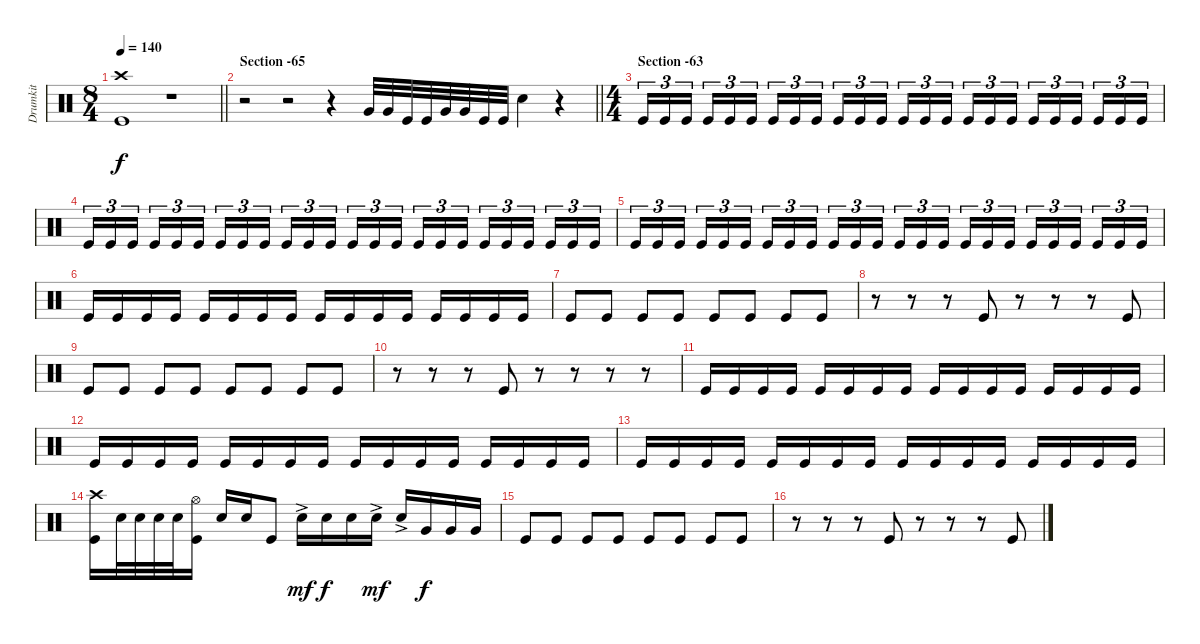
\track ("Drumkit" "Drumkit") {instrument percussion}
\staff {score}
\articulation defaults
\ts (8 4)
\tempo 140
\clef neutral
\barLineRight lightlight
\ks c
("Kick (hit)" "Crash high (hit)").1{dy f} r.1 |
\section ("" "Section -65")
\barLineRight lightlight
r.2 r.2 r.4 "Very Low Tom (hit)".32 "Very Low Tom (hit)".32 "Kick (hit)".32 "Kick (hit)".32 "Very Low Tom (hit)".32 "Very Low Tom (hit)".32 "Kick (hit)".32 "Kick (hit)".32 "Snare (hit) 2".4 r.4 |
\ts (4 4)
\section ("" "Section -63")
"Kick (hit)".16{tu (3 2)} "Kick (hit)".16{tu (3 2)} "Kick (hit)".16{tu (3 2)} "Kick (hit)".16{tu (3 2)} "Kick (hit)".16{tu (3 2)} "Kick (hit)".16{tu (3 2)} "Kick (hit)".16{tu (3 2)} "Kick (hit)".16{tu (3 2)} "Kick (hit)".16{tu (3 2)} "Kick (hit)".16{tu (3 2)} "Kick (hit)".16{tu (3 2)} "Kick (hit)".16{tu (3 2)} "Kick (hit)".16{tu (3 2)} "Kick (hit)".16{tu (3 2)} "Kick (hit)".16{tu (3 2)} "Kick (hit)".16{tu (3 2)} "Kick (hit)".16{tu (3 2)} "Kick (hit)".16{tu (3 2)} "Kick (hit)".16{tu (3 2)} "Kick (hit)".16{tu (3 2)} "Kick (hit)".16{tu (3 2)} "Kick (hit)".16{tu (3 2)} "Kick (hit)".16{tu (3 2)} "Kick (hit)".16{tu (3 2)} |
"Kick (hit)".16{tu (3 2)} "Kick (hit)".16{tu (3 2)} "Kick (hit)".16{tu (3 2)} "Kick (hit)".16{tu (3 2)} "Kick (hit)".16{tu (3 2)} "Kick (hit)".16{tu (3 2)} "Kick (hit)".16{tu (3 2)} "Kick (hit)".16{tu (3 2)} "Kick (hit)".16{tu (3 2)} "Kick (hit)".16{tu (3 2)} "Kick (hit)".16{tu (3 2)} "Kick (hit)".16{tu (3 2)} "Kick (hit)".16{tu (3 2)} "Kick (hit)".16{tu (3 2)} "Kick (hit)".16{tu (3 2)} "Kick (hit)".16{tu (3 2)} "Kick (hit)".16{tu (3 2)} "Kick (hit)".16{tu (3 2)} "Kick (hit)".16{tu (3 2)} "Kick (hit)".16{tu (3 2)} "Kick (hit)".16{tu (3 2)} "Kick (hit)".16{tu (3 2)} "Kick (hit)".16{tu (3 2)} "Kick (hit)".16{tu (3 2)} |
"Kick (hit)".16{tu (3 2)} "Kick (hit)".16{tu (3 2)} "Kick (hit)".16{tu (3 2)} "Kick (hit)".16{tu (3 2)} "Kick (hit)".16{tu (3 2)} "Kick (hit)".16{tu (3 2)} "Kick (hit)".16{tu (3 2)} "Kick (hit)".16{tu (3 2)} "Kick (hit)".16{tu (3 2)} "Kick (hit)".16{tu (3 2)} "Kick (hit)".16{tu (3 2)} "Kick (hit)".16{tu (3 2)} "Kick (hit)".16{tu (3 2)} "Kick (hit)".16{tu (3 2)} "Kick (hit)".16{tu (3 2)} "Kick (hit)".16{tu (3 2)} "Kick (hit)".16{tu (3 2)} "Kick (hit)".16{tu (3 2)} "Kick (hit)".16{tu (3 2)} "Kick (hit)".16{tu (3 2)} "Kick (hit)".16{tu (3 2)} "Kick (hit)".16{tu (3 2)} "Kick (hit)".16{tu (3 2)} "Kick (hit)".16{tu (3 2)} |
"Kick (hit)".16 "Kick (hit)".16 "Kick (hit)".16 "Kick (hit)".16 "Kick (hit)".16 "Kick (hit)".16 "Kick (hit)".16 "Kick (hit)".16 "Kick (hit)".16 "Kick (hit)".16 "Kick (hit)".16 "Kick (hit)".16 "Kick (hit)".16 "Kick (hit)".16 "Kick (hit)".16 "Kick (hit)".16 |
"Kick (hit)".8 "Kick (hit)".8 "Kick (hit)".8 "Kick (hit)".8 "Kick (hit)".8 "Kick (hit)".8 "Kick (hit)".8 "Kick (hit)".8 |
r.8 r.8 r.8 "Kick (hit)".8 r.8 r.8 r.8 "Kick (hit)".8 |
"Kick (hit)".8 "Kick (hit)".8 "Kick (hit)".8 "Kick (hit)".8 "Kick (hit)".8 "Kick (hit)".8 "Kick (hit)".8 "Kick (hit)".8 |
r.8 r.8 r.8 "Kick (hit)".8 r.8 r.8 r.8 r.8 |
"Kick (hit)".16 "Kick (hit)".16 "Kick (hit)".16 "Kick (hit)".16 "Kick (hit)".16 "Kick (hit)".16 "Kick (hit)".16 "Kick (hit)".16 "Kick (hit)".16 "Kick (hit)".16 "Kick (hit)".16 "Kick (hit)".16 "Kick (hit)".16 "Kick (hit)".16 "Kick (hit)".16 "Kick (hit)".16 |
"Kick (hit)".16 "Kick (hit)".16 "Kick (hit)".16 "Kick (hit)".16 "Kick (hit)".16 "Kick (hit)".16 "Kick (hit)".16 "Kick (hit)".16 "Kick (hit)".16 "Kick (hit)".16 "Kick (hit)".16 "Kick (hit)".16 "Kick (hit)".16 "Kick (hit)".16 "Kick (hit)".16 "Kick (hit)".16 |
"Kick (hit)".16 "Kick (hit)".16 "Kick (hit)".16 "Kick (hit)".16 "Kick (hit)".16 "Kick (hit)".16 "Kick (hit)".16 "Kick (hit)".16 "Kick (hit)".16 "Kick (hit)".16 "Kick (hit)".16 "Kick (hit)".16 "Kick (hit)".16 "Kick (hit)".16 "Kick (hit)".16 "Kick (hit)".16 |
("Crash high (hit)" "Kick (hit)").16 "Snare (hit) 2".32 "Snare (hit) 2".32 "Snare (hit) 2".32 "Snare (hit) 2".32 ("Hi-Hat (open)" "Kick (hit)").16 "Snare (hit) 2".16 "Snare (hit) 2".16 "Kick (hit)".8 "Snare (hit) 2"{ac}.16{dy mf} "Snare (hit) 2".16{dy f} "Snare (hit) 2".16 "Snare (hit) 2"{ac}.16{dy mf} "Snare (hit) 2"{ac}.16 "Very Low Tom (hit)".16{dy f} "Very Low Tom (hit)".16 "Very Low Tom (hit)".16 |
"Kick (hit)".8 "Kick (hit)".8 "Kick (hit)".8 "Kick (hit)".8 "Kick (hit)".8 "Kick (hit)".8 "Kick (hit)".8 "Kick (hit)".8 |
r.8 r.8 r.8 "Kick (hit)".8 r.8 r.8 r.8 "Kick (hit)".8
